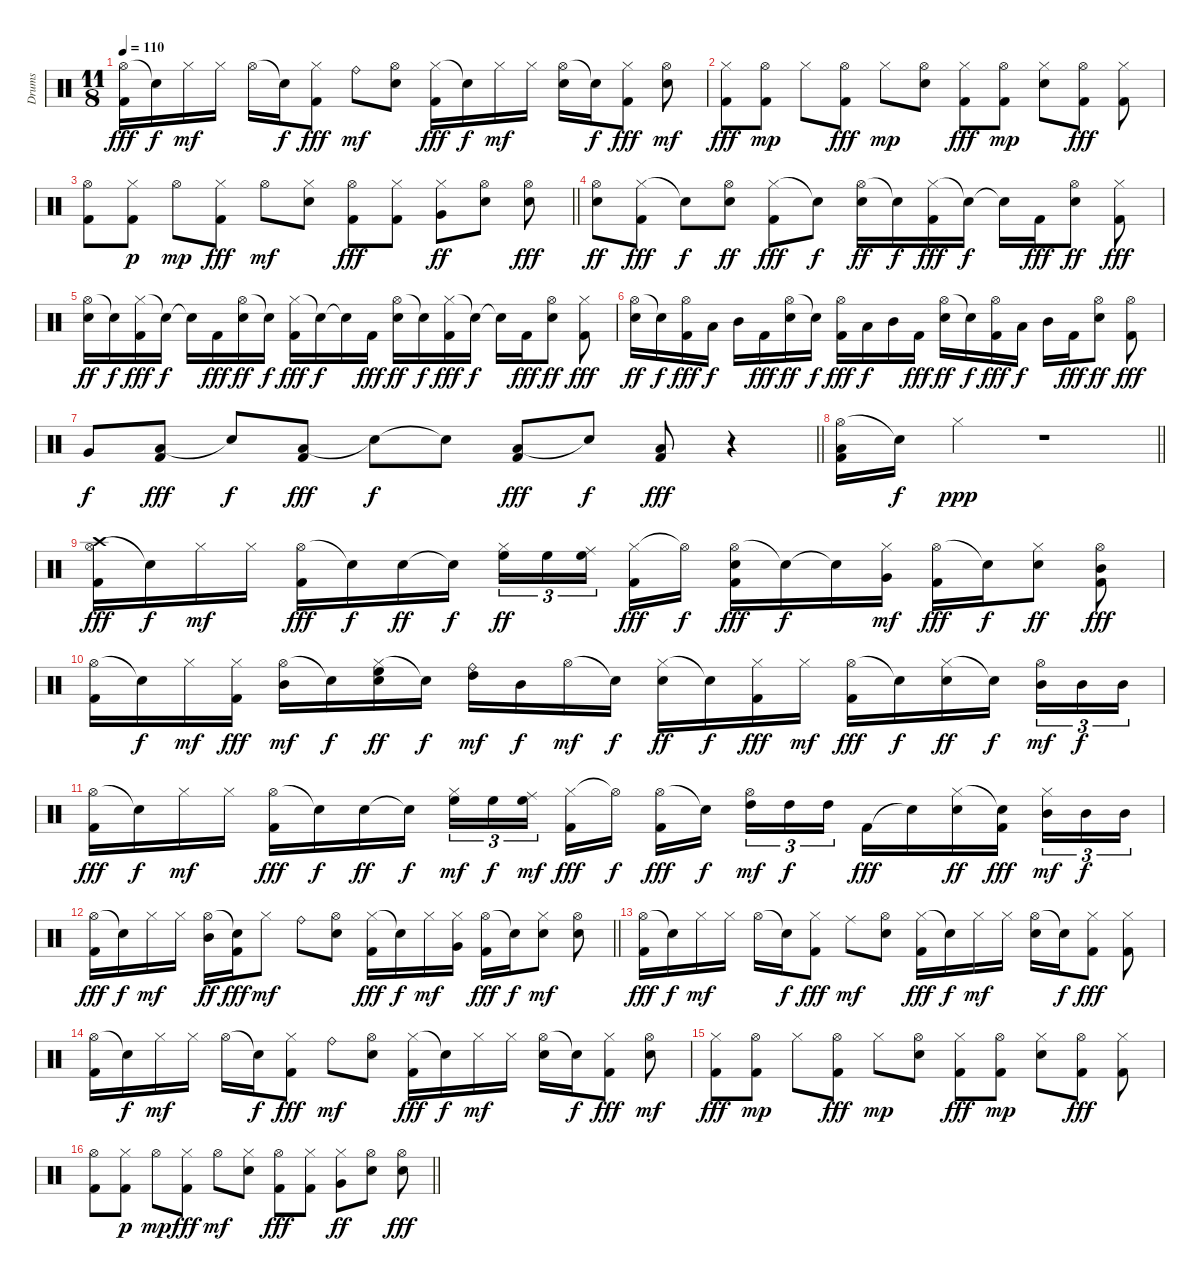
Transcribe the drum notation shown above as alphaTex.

\track ("Drums" "Drums") {instrument percussion}
\staff {score}
\articulation defaults
\ts (11 8)
\tempo 110
\clef neutral
\ks c
("Hi-Hat (open)" "Kick (hit) 2").16{dy fff} "Snare (hit)"{t}.16{dy f} "Hi-Hat (closed)".16{dy mf} "Hi-Hat (closed)".16 "Hi-Hat (open)".16 "Snare (hit)"{t}.16{dy f} ("Hi-Hat (closed)" "Kick (hit) 2").8{dy fff} "Ride (bell)".8{dy mf} ("Hi-Hat (open)" "Snare (hit) 2").8 ("Hi-Hat (closed)" "Kick (hit) 2").16{dy fff} "Snare (hit)"{t}.16{dy f} "Hi-Hat (closed)".16{dy mf} "Hi-Hat (closed)".16 ("Hi-Hat (open)" "Snare (hit) 2").16 "Snare (hit)"{t}.16{dy f} ("Hi-Hat (closed)" "Kick (hit) 2").8{dy fff} ("Hi-Hat (open)" "Snare (hit) 2").8{dy mf} |
("Hi-Hat (closed)" "Kick (hit) 2").8{dy fff} ("Hi-Hat (open)" "Kick (hit) 2").8{dy mp} "Hi-Hat (closed)".8 ("Hi-Hat (open)" "Kick (hit) 2").8{dy fff} "Hi-Hat (closed)".8{dy mp} ("Hi-Hat (open)" "Snare (hit) 2").8 ("Hi-Hat (closed)" "Kick (hit) 2").8{dy fff} ("Hi-Hat (open)" "Kick (hit) 2").8{dy mp} ("Hi-Hat (closed)" "Snare (hit) 2").8 ("Hi-Hat (open)" "Kick (hit) 2").8{dy fff} ("Hi-Hat (closed)" "Kick (hit) 2").8 |
\barLineRight lightlight
("Hi-Hat (open)" "Kick (hit) 2").8 ("Hi-Hat (closed)" "Kick (hit) 2").8{dy p} "Hi-Hat (open)".8{dy mp} ("Hi-Hat (closed)" "Kick (hit) 2").8{dy fff} "Hi-Hat (open)".8{dy mf} ("Hi-Hat (closed)" "Snare (hit) 2").8 ("Hi-Hat (open)" "Kick (hit) 2").8{dy fff} ("Hi-Hat (closed)" "Kick (hit) 2").8 ("Hi-Hat (closed)" "Very Low Tom (hit)").8{dy ff} ("Hi-Hat (open)" "Snare (hit) 2").8 ("Hi-Hat (open)" "Snare (hit) 2").8{dy fff} |
\section ("" "")
("Hi-Hat (open)" "Snare (hit) 2").8{dy ff} ("Hi-Hat (closed)" "Kick (hit) 2").8{dy fff} "Snare (hit)"{t}.8{dy f} ("Hi-Hat (open)" "Snare (hit) 2").8{dy ff} ("Hi-Hat (closed)" "Kick (hit) 2").8{dy fff} "Snare (hit)"{t}.8{dy f} ("Hi-Hat (open)" "Snare (hit) 2").16{dy ff} "Snare (hit)"{t}.16{dy f} ("Hi-Hat (closed)" "Kick (hit) 2").16{dy fff} "Snare (hit)"{t}.16{dy f} "Snare (hit)"{t}.16 "Kick (hit) 2".16{dy fff} ("Hi-Hat (open)" "Snare (hit) 2").8{dy ff} ("Hi-Hat (closed)" "Kick (hit) 2").8{dy fff} |
("Hi-Hat (open)" "Snare (hit) 2").16{dy ff} "Snare (hit)"{t}.16{dy f} ("Hi-Hat (closed)" "Kick (hit) 2").16{dy fff} "Snare (hit)"{t}.16{dy f} "Snare (hit)"{t}.16 "Kick (hit) 2".16{dy fff} ("Hi-Hat (open)" "Snare (hit) 2").16{dy ff} "Snare (hit)"{t}.16{dy f} ("Hi-Hat (closed)" "Kick (hit) 2").16{dy fff} "Snare (hit)"{t}.16{dy f} "Snare (hit)"{t}.16 "Kick (hit) 2".16{dy fff} ("Hi-Hat (open)" "Snare (hit) 2").16{dy ff} "Snare (hit)"{t}.16{dy f} ("Hi-Hat (closed)" "Kick (hit) 2").16{dy fff} "Snare (hit)"{t}.16{dy f} "Snare (hit)"{t}.16 "Kick (hit) 2".16{dy fff} ("Hi-Hat (open)" "Snare (hit) 2").8{dy ff} ("Hi-Hat (closed)" "Kick (hit) 2").8{dy fff} |
("Hi-Hat (open)" "Snare (hit) 2").16{dy ff} "Snare (hit)"{t}.16{dy f} ("Hi-Hat (open)" "Kick (hit) 2").16{dy fff} "Low Tom (hit)".16{dy f} "Mid Tom (hit)".16 "Kick (hit) 2".16{dy fff} ("Hi-Hat (open)" "Snare (hit) 2").16{dy ff} "Snare (hit)"{t}.16{dy f} ("Hi-Hat (open)" "Kick (hit) 2").16{dy fff} "Low Tom (hit)".16{dy f} "Mid Tom (hit)".16 "Kick (hit) 2".16{dy fff} ("Hi-Hat (open)" "Snare (hit) 2").16{dy ff} "Snare (hit)"{t}.16{dy f} ("Hi-Hat (open)" "Kick (hit) 2").16{dy fff} "Low Tom (hit)".16{dy f} "Mid Tom (hit)".16 "Kick (hit) 2".16{dy fff} ("Hi-Hat (open)" "Snare (hit) 2").8{dy ff} ("Hi-Hat (open)" "Kick (hit) 2").8{dy fff} |
\barLineRight lightlight "Very Low Tom (hit)".8{dy f}
("Low Tom (hit)" "Kick (hit) 2").8{dy fff} "Snare (hit)"{t}.8{dy f} ("Low Tom (hit)" "Kick (hit) 2").8{dy fff} "Snare (hit)"{t}.8{dy f} "Snare (hit)"{t}.8 ("Low Tom (hit)" "Kick (hit) 2").8{dy fff} "Snare (hit)"{t}.8{dy f} ("Low Tom (hit)" "Kick (hit) 2").8{dy fff} r.4 |
\barLineRight lightlight
("Hi-Hat (open)" "Low Tom (hit)" "Kick (hit) 2").16 "Snare (hit)"{t}.16{dy f} "Hi-Hat (closed)".4{dy ppp} r.1 |
\section ("" "")
("Crash high (hit)" "Hi-Hat (open)" "Kick (hit) 2").16{dy fff} "Snare (hit)"{t}.16{dy f} "Hi-Hat (closed)".16{dy mf} "Hi-Hat (closed)".16 ("Hi-Hat (open)" "Kick (hit) 2").16{dy fff} "Snare (hit)"{t}.16{dy f} "Snare (hit) 2".16{dy ff} "Snare (hit)"{t}.16{dy f} ("Hi-Hat (closed)" "High Floor Tom (hit)").16{tu (3 2) dy ff} "High Floor Tom (hit)".16{tu (3 2)} ("Ride (middle)" "High Floor Tom (hit)").16{tu (3 2)} ("Hi-Hat (closed)" "Kick (hit) 2").16{dy fff} "Hi-Hat (open)"{t}.16{dy f} ("Hi-Hat (open)" "Snare (hit) 2" "Kick (hit) 2").16{dy fff} "Snare (hit)"{t}.16{dy f} "Snare (hit)"{t}.16 ("Hi-Hat (closed)" "Very Low Tom (hit)").16{dy mf} ("Hi-Hat (open)" "Kick (hit) 2").16{dy fff} "Snare (hit)"{t}.16{dy f} ("Hi-Hat (closed)" "Snare (hit) 2").8{dy ff} ("Hi-Hat (open)" "Mid Tom (hit)" "Kick (hit) 2").8{dy fff} |
("Hi-Hat (open)" "Kick (hit) 2").16 "Snare (hit)"{t}.16{dy f} "Hi-Hat (closed)".16{dy mf} ("Hi-Hat (closed)" "Kick (hit) 2").16{dy fff} ("Hi-Hat (open)" "Mid Tom (hit)").16{dy mf} "Snare (hit)"{t}.16{dy f} ("Hi-Hat (closed)" "Snare (hit) 2" "High Floor Tom (hit)").16{dy ff} "Snare (hit)"{t}.16{dy f} ("Ride (bell)" "High Tom (hit)").16{dy mf} "Mid Tom (hit)".16{dy f} "Hi-Hat (open)".16{dy mf} "Snare (hit)"{t}.16{dy f} ("Hi-Hat (closed)" "Snare (hit) 2").16{dy ff} "Snare (hit)"{t}.16{dy f} ("Hi-Hat (closed)" "Kick (hit) 2").16{dy fff} "Hi-Hat (closed)".16{dy mf} ("Hi-Hat (open)" "Kick (hit) 2").16{dy fff} "Snare (hit)"{t}.16{dy f} ("Hi-Hat (closed)" "Snare (hit) 2").16{dy ff} "Snare (hit)"{t}.16{dy f} ("Hi-Hat (open)" "Mid Tom (hit)").16{tu (3 2) dy mf} "Mid Tom (hit)".16{tu (3 2) dy f} "Mid Tom (hit)".16{tu (3 2)} |
("Hi-Hat (open)" "Kick (hit) 2").16{dy fff} "Snare (hit)"{t}.16{dy f} "Hi-Hat (closed)".16{dy mf} "Hi-Hat (closed)".16 ("Hi-Hat (open)" "Kick (hit) 2").16{dy fff} "Snare (hit)"{t}.16{dy f} "Snare (hit) 2".16{dy ff} "Snare (hit)"{t}.16{dy f} ("Hi-Hat (closed)" "High Floor Tom (hit)").16{tu (3 2) dy mf} "High Floor Tom (hit)".16{tu (3 2) dy f} ("Ride (middle)" "High Floor Tom (hit)").16{tu (3 2) dy mf} ("Hi-Hat (closed)" "Kick (hit) 2").16{dy fff} "Hi-Hat (open)"{t}.16{dy f} ("Hi-Hat (open)" "Kick (hit) 2").16{dy fff} "Snare (hit)"{t}.16{dy f} ("Hi-Hat (open)" "High Tom (hit)").16{tu (3 2) dy mf} "High Tom (hit)".16{tu (3 2) dy f} "High Tom (hit)".16{tu (3 2)} "Kick (hit) 2".16{dy fff} "Snare (hit)"{t}.16 ("Hi-Hat (closed)" "Snare (hit) 2").16{dy ff} ("Snare (hit)"{t} "Kick (hit) 2").16{dy fff} ("Hi-Hat (closed)" "Mid Tom (hit)").16{tu (3 2) dy mf} "Mid Tom (hit)".16{tu (3 2) dy f} "Mid Tom (hit)".16{tu (3 2)} |
\barLineRight lightlight
("Hi-Hat (open)" "Kick (hit) 2").16{dy fff} "Snare (hit)"{t}.16{dy f} "Hi-Hat (closed)".16{dy mf} "Hi-Hat (closed)".16 ("Hi-Hat (open)" "Mid Tom (hit)").16{dy ff} ("Snare (hit)"{t} "Kick (hit) 2").16{dy fff} "Hi-Hat (closed)".8{dy mf} "Ride (bell)".8 ("Hi-Hat (open)" "Snare (hit) 2").8 ("Hi-Hat (closed)" "Kick (hit) 2").16{dy fff} "Snare (hit)"{t}.16{dy f} "Hi-Hat (closed)".16{dy mf} ("Hi-Hat (closed)" "Very Low Tom (hit)").16 ("Hi-Hat (open)" "Kick (hit) 2").16{dy fff} "Snare (hit)"{t}.16{dy f} ("Hi-Hat (closed)" "Snare (hit) 2").8{dy mf} ("Hi-Hat (open)" "Snare (hit) 2").8 |
\section ("" "")
("Hi-Hat (open)" "Kick (hit) 2").16{dy fff} "Snare (hit)"{t}.16{dy f} "Hi-Hat (closed)".16{dy mf} "Hi-Hat (closed)".16 "Hi-Hat (open)".16 "Snare (hit)"{t}.16{dy f} ("Hi-Hat (closed)" "Kick (hit) 2").8{dy fff} "Ride (middle)".8{dy mf} ("Hi-Hat (open)" "Snare (hit) 2").8 ("Hi-Hat (closed)" "Kick (hit) 2").16{dy fff} "Snare (hit)"{t}.16{dy f} "Hi-Hat (closed)".16{dy mf} "Hi-Hat (closed)".16 ("Hi-Hat (open)" "Snare (hit) 2").16 "Snare (hit)"{t}.16{dy f} ("Hi-Hat (closed)" "Kick (hit) 2").8{dy fff} ("Hi-Hat (closed)" "Kick (hit) 2").8 |
("Hi-Hat (open)" "Kick (hit) 2").16 "Snare (hit)"{t}.16{dy f} "Hi-Hat (closed)".16{dy mf} "Hi-Hat (closed)".16 "Hi-Hat (open)".16 "Snare (hit)"{t}.16{dy f} ("Hi-Hat (closed)" "Kick (hit) 2").8{dy fff} "Ride (bell)".8{dy mf} ("Hi-Hat (open)" "Snare (hit) 2").8 ("Hi-Hat (closed)" "Kick (hit) 2").16{dy fff} "Snare (hit)"{t}.16{dy f} "Hi-Hat (closed)".16{dy mf} "Hi-Hat (closed)".16 ("Hi-Hat (open)" "Snare (hit) 2").16 "Snare (hit)"{t}.16{dy f} ("Hi-Hat (closed)" "Kick (hit) 2").8{dy fff} ("Hi-Hat (open)" "Snare (hit) 2").8{dy mf} |
("Hi-Hat (closed)" "Kick (hit) 2").8{dy fff} ("Hi-Hat (open)" "Kick (hit) 2").8{dy mp} "Hi-Hat (closed)".8 ("Hi-Hat (open)" "Kick (hit) 2").8{dy fff} "Hi-Hat (closed)".8{dy mp} ("Hi-Hat (open)" "Snare (hit) 2").8 ("Hi-Hat (closed)" "Kick (hit) 2").8{dy fff} ("Hi-Hat (open)" "Kick (hit) 2").8{dy mp} ("Hi-Hat (closed)" "Snare (hit) 2").8 ("Hi-Hat (open)" "Kick (hit) 2").8{dy fff} ("Hi-Hat (closed)" "Kick (hit) 2").8 |
\barLineRight lightlight
("Hi-Hat (open)" "Kick (hit) 2").8 ("Hi-Hat (closed)" "Kick (hit) 2").8{dy p} "Hi-Hat (open)".8{dy mp} ("Hi-Hat (closed)" "Kick (hit) 2").8{dy fff} "Hi-Hat (open)".8{dy mf} ("Hi-Hat (closed)" "Snare (hit) 2").8 ("Hi-Hat (open)" "Kick (hit) 2").8{dy fff} ("Hi-Hat (closed)" "Kick (hit) 2").8 ("Hi-Hat (closed)" "Very Low Tom (hit)").8{dy ff} ("Hi-Hat (open)" "Snare (hit) 2").8 ("Hi-Hat (open)" "Snare (hit) 2").8{dy fff}
